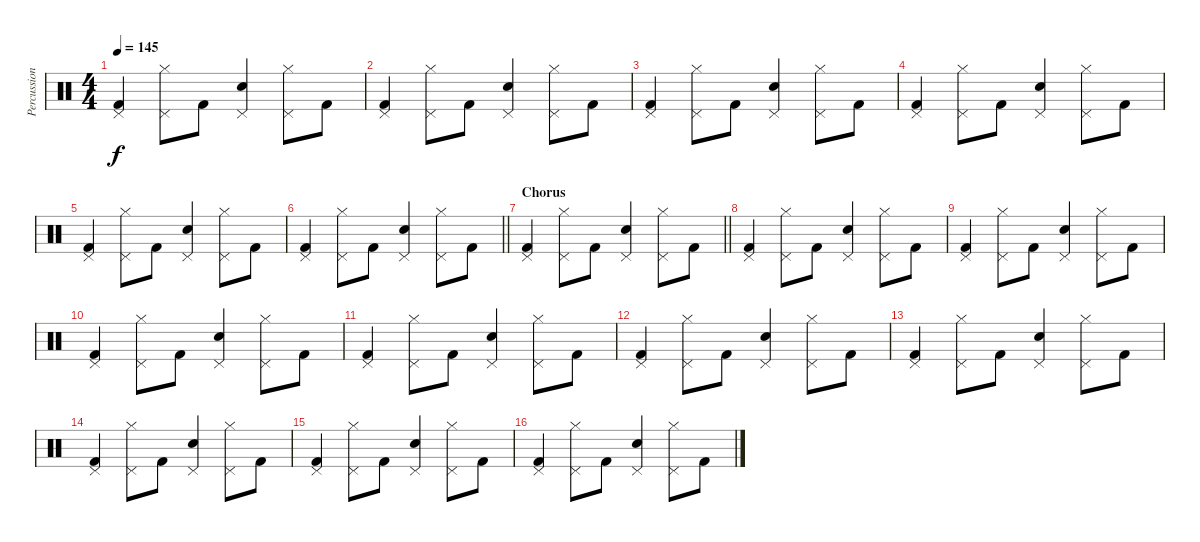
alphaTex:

\track ("Percussion" "Percussion") {instrument percussion}
\staff {score}
\articulation defaults
\ts (4 4)
\tempo 145
\clef neutral
\ks c
("Kick (hit) 2" "Pedal Hi-Hat (hit)").4{dy f} ("Hi-Hat (closed)" "Pedal Hi-Hat (hit)").8 "Kick (hit) 2".8 ("Snare (hit) 2" "Pedal Hi-Hat (hit)").4 ("Hi-Hat (closed)" "Pedal Hi-Hat (hit)").8 "Kick (hit) 2".8 |
("Kick (hit) 2" "Pedal Hi-Hat (hit)").4 ("Hi-Hat (closed)" "Pedal Hi-Hat (hit)").8 "Kick (hit) 2".8 ("Snare (hit) 2" "Pedal Hi-Hat (hit)").4 ("Hi-Hat (closed)" "Pedal Hi-Hat (hit)").8 "Kick (hit) 2".8 |
("Kick (hit) 2" "Pedal Hi-Hat (hit)").4 ("Hi-Hat (closed)" "Pedal Hi-Hat (hit)").8 "Kick (hit) 2".8 ("Snare (hit) 2" "Pedal Hi-Hat (hit)").4 ("Hi-Hat (closed)" "Pedal Hi-Hat (hit)").8 "Kick (hit) 2".8 |
("Kick (hit) 2" "Pedal Hi-Hat (hit)").4 ("Hi-Hat (closed)" "Pedal Hi-Hat (hit)").8 "Kick (hit) 2".8 ("Snare (hit) 2" "Pedal Hi-Hat (hit)").4 ("Hi-Hat (closed)" "Pedal Hi-Hat (hit)").8 "Kick (hit) 2".8 |
("Kick (hit) 2" "Pedal Hi-Hat (hit)").4 ("Hi-Hat (closed)" "Pedal Hi-Hat (hit)").8 "Kick (hit) 2".8 ("Snare (hit) 2" "Pedal Hi-Hat (hit)").4 ("Hi-Hat (closed)" "Pedal Hi-Hat (hit)").8 "Kick (hit) 2".8 |
\barLineRight lightlight
("Kick (hit) 2" "Pedal Hi-Hat (hit)").4 ("Hi-Hat (closed)" "Pedal Hi-Hat (hit)").8 "Kick (hit) 2".8 ("Snare (hit) 2" "Pedal Hi-Hat (hit)").4 ("Hi-Hat (closed)" "Pedal Hi-Hat (hit)").8 "Kick (hit) 2".8 |
\section ("" "Chorus")
\barLineRight lightlight
("Kick (hit) 2" "Pedal Hi-Hat (hit)").4 ("Hi-Hat (closed)" "Pedal Hi-Hat (hit)").8 "Kick (hit) 2".8 ("Snare (hit) 2" "Pedal Hi-Hat (hit)").4 ("Hi-Hat (closed)" "Pedal Hi-Hat (hit)").8 "Kick (hit) 2".8 |
\section ("" "")
("Kick (hit) 2" "Pedal Hi-Hat (hit)").4 ("Hi-Hat (closed)" "Pedal Hi-Hat (hit)").8 "Kick (hit) 2".8 ("Snare (hit) 2" "Pedal Hi-Hat (hit)").4 ("Hi-Hat (closed)" "Pedal Hi-Hat (hit)").8 "Kick (hit) 2".8 |
("Kick (hit) 2" "Pedal Hi-Hat (hit)").4 ("Hi-Hat (closed)" "Pedal Hi-Hat (hit)").8 "Kick (hit) 2".8 ("Snare (hit) 2" "Pedal Hi-Hat (hit)").4 ("Hi-Hat (closed)" "Pedal Hi-Hat (hit)").8 "Kick (hit) 2".8 |
("Kick (hit) 2" "Pedal Hi-Hat (hit)").4 ("Hi-Hat (closed)" "Pedal Hi-Hat (hit)").8 "Kick (hit) 2".8 ("Snare (hit) 2" "Pedal Hi-Hat (hit)").4 ("Hi-Hat (closed)" "Pedal Hi-Hat (hit)").8 "Kick (hit) 2".8 |
("Kick (hit) 2" "Pedal Hi-Hat (hit)").4 ("Hi-Hat (closed)" "Pedal Hi-Hat (hit)").8 "Kick (hit) 2".8 ("Snare (hit) 2" "Pedal Hi-Hat (hit)").4 ("Hi-Hat (closed)" "Pedal Hi-Hat (hit)").8 "Kick (hit) 2".8 |
("Kick (hit) 2" "Pedal Hi-Hat (hit)").4 ("Hi-Hat (closed)" "Pedal Hi-Hat (hit)").8 "Kick (hit) 2".8 ("Snare (hit) 2" "Pedal Hi-Hat (hit)").4 ("Hi-Hat (closed)" "Pedal Hi-Hat (hit)").8 "Kick (hit) 2".8 |
("Kick (hit) 2" "Pedal Hi-Hat (hit)").4 ("Hi-Hat (closed)" "Pedal Hi-Hat (hit)").8 "Kick (hit) 2".8 ("Snare (hit) 2" "Pedal Hi-Hat (hit)").4 ("Hi-Hat (closed)" "Pedal Hi-Hat (hit)").8 "Kick (hit) 2".8 |
("Kick (hit) 2" "Pedal Hi-Hat (hit)").4 ("Hi-Hat (closed)" "Pedal Hi-Hat (hit)").8 "Kick (hit) 2".8 ("Snare (hit) 2" "Pedal Hi-Hat (hit)").4 ("Hi-Hat (closed)" "Pedal Hi-Hat (hit)").8 "Kick (hit) 2".8 |
("Kick (hit) 2" "Pedal Hi-Hat (hit)").4 ("Hi-Hat (closed)" "Pedal Hi-Hat (hit)").8 "Kick (hit) 2".8 ("Snare (hit) 2" "Pedal Hi-Hat (hit)").4 ("Hi-Hat (closed)" "Pedal Hi-Hat (hit)").8 "Kick (hit) 2".8 |
("Kick (hit) 2" "Pedal Hi-Hat (hit)").4 ("Hi-Hat (closed)" "Pedal Hi-Hat (hit)").8 "Kick (hit) 2".8 ("Snare (hit) 2" "Pedal Hi-Hat (hit)").4 ("Hi-Hat (closed)" "Pedal Hi-Hat (hit)").8 "Kick (hit) 2".8
